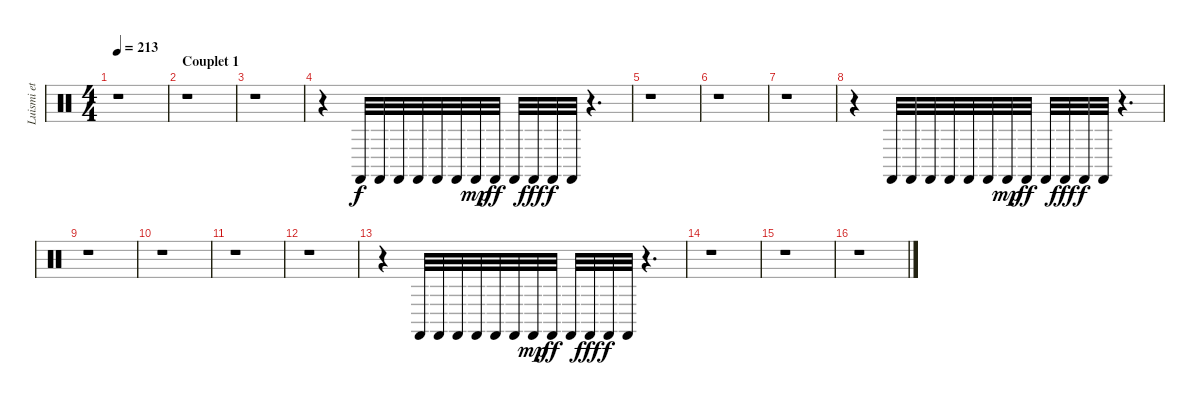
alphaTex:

\track ("Luismi et ses castagnettes" "Luismi et ") {instrument percussion}
\staff {score}
\articulation defaults
\ts (4 4)
\tempo 213
\clef neutral
\ks c
r.1{dy f} |
\section ("" "Couplet 1")
r.1 |
r.1 |
r.4{volume 16} "Castanets (hit)".32 "Castanets (hit)".32 "Castanets (hit)".32 "Castanets (hit)".32 "Castanets (hit)".32 "Castanets (hit)".32 "Castanets (hit)".32{dy mp} "Castanets (hit)".32{dy ff} "Castanets (hit)".32 "Castanets (hit)".32{dy fff} "Castanets (hit)".32{dy f} "Castanets (hit)".32 r.4{d} |
r.1 |
r.1 |
r.1 |
r.4 "Castanets (hit)".32 "Castanets (hit)".32 "Castanets (hit)".32 "Castanets (hit)".32 "Castanets (hit)".32 "Castanets (hit)".32 "Castanets (hit)".32{dy mp} "Castanets (hit)".32{dy ff} "Castanets (hit)".32 "Castanets (hit)".32{dy fff} "Castanets (hit)".32{dy f} "Castanets (hit)".32 r.4{d} |
r.1 |
r.1 |
r.1 |
r.1 |
r.4 "Castanets (hit)".32 "Castanets (hit)".32 "Castanets (hit)".32 "Castanets (hit)".32 "Castanets (hit)".32 "Castanets (hit)".32 "Castanets (hit)".32{dy mp} "Castanets (hit)".32{dy ff} "Castanets (hit)".32 "Castanets (hit)".32{dy fff} "Castanets (hit)".32{dy f} "Castanets (hit)".32 r.4{d} |
r.1 |
r.1 |
r.1
